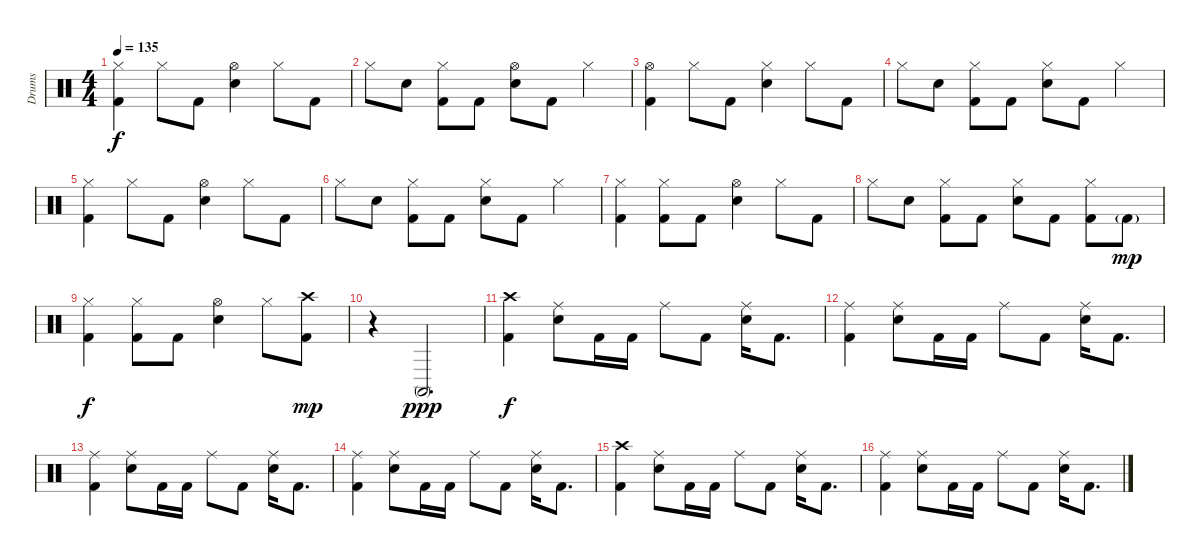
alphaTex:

\track ("Drums" "Drums") {instrument percussion}
\staff {score}
\articulation defaults
\ts (4 4)
\tempo 135
\clef neutral
\ks c
("Hi-Hat (closed)" "Kick (hit) 2").4{dy f} "Hi-Hat (closed)".8 "Kick (hit) 2".8 ("Hi-Hat (open)" "Electric Snare (hit)").4 "Hi-Hat (closed)".8 "Kick (hit) 2".8 |
"Hi-Hat (closed)".8 "Electric Snare (hit)".8 ("Hi-Hat (closed)" "Kick (hit) 2").8 "Kick (hit) 2".8 ("Hi-Hat (open)" "Electric Snare (hit)").8 "Kick (hit) 2".8 "Hi-Hat (closed)".4 |
("Hi-Hat (open)" "Kick (hit) 2").4 "Hi-Hat (closed)".8 "Kick (hit) 2".8 ("Hi-Hat (closed)" "Electric Snare (hit)").4 "Hi-Hat (closed)".8 "Kick (hit) 2".8 |
"Hi-Hat (closed)".8 "Electric Snare (hit)".8 ("Hi-Hat (closed)" "Kick (hit) 2").8 "Kick (hit) 2".8 ("Hi-Hat (closed)" "Electric Snare (hit)").8 "Kick (hit) 2".8 "Hi-Hat (closed)".4 |
("Hi-Hat (closed)" "Kick (hit) 2").4 "Hi-Hat (closed)".8 "Kick (hit) 2".8 ("Hi-Hat (open)" "Electric Snare (hit)").4 "Hi-Hat (closed)".8 "Kick (hit) 2".8 |
"Hi-Hat (closed)".8 "Electric Snare (hit)".8 ("Hi-Hat (closed)" "Kick (hit) 2").8 "Kick (hit) 2".8 ("Hi-Hat (closed)" "Electric Snare (hit)").8 "Kick (hit) 2".8 "Hi-Hat (closed)".4 |
("Hi-Hat (closed)" "Kick (hit) 2").4 ("Hi-Hat (closed)" "Kick (hit) 2").8 "Kick (hit) 2".8 ("Hi-Hat (open)" "Electric Snare (hit)").4 "Hi-Hat (closed)".8 "Kick (hit) 2".8 |
"Hi-Hat (closed)".8 "Electric Snare (hit)".8 ("Hi-Hat (closed)" "Kick (hit) 2").8 "Kick (hit) 2".8 ("Hi-Hat (closed)" "Electric Snare (hit)").8 "Kick (hit) 2".8 ("Hi-Hat (closed)" "Kick (hit) 2").8 "Kick (hit) 2"{g}.8{dy mp} |
("Hi-Hat (closed)" "Kick (hit) 2").4{dy f} ("Hi-Hat (closed)" "Kick (hit) 2").8 "Kick (hit) 2".8 ("Hi-Hat (open)" "Electric Snare (hit)").4 "Hi-Hat (closed)".8 ("Crash high (hit)" "Kick (hit) 2").8{dy mp} |
r.4 "Conga high (mute)".2{d dy ppp volume 16} |
("Crash high (hit)" "Kick (hit) 2").4{dy f volume 14} ("Ride (middle)" "Electric Snare (hit)").8 "Kick (hit) 2".16 "Kick (hit) 2".16 "Ride (middle)".8 "Kick (hit) 2".8 ("Ride (middle)" "Electric Snare (hit)").16 "Kick (hit) 2".8{d} |
("Ride (middle)" "Kick (hit) 2").4 ("Ride (middle)" "Electric Snare (hit)").8 "Kick (hit) 2".16 "Kick (hit) 2".16 "Ride (middle)".8 "Kick (hit) 2".8 ("Ride (middle)" "Electric Snare (hit)").16 "Kick (hit) 2".8{d} |
("Ride (middle)" "Kick (hit) 2").4 ("Ride (middle)" "Electric Snare (hit)").8 "Kick (hit) 2".16 "Kick (hit) 2".16 "Ride (middle)".8 "Kick (hit) 2".8 ("Ride (middle)" "Electric Snare (hit)").16 "Kick (hit) 2".8{d} |
("Ride (middle)" "Kick (hit) 2").4 ("Ride (middle)" "Electric Snare (hit)").8 "Kick (hit) 2".16 "Kick (hit) 2".16 "Ride (middle)".8 "Kick (hit) 2".8 ("Ride (middle)" "Electric Snare (hit)").16 "Kick (hit) 2".8{d} |
("Crash high (hit)" "Kick (hit) 2").4 ("Ride (middle)" "Electric Snare (hit)").8 "Kick (hit) 2".16 "Kick (hit) 2".16 "Ride (middle)".8 "Kick (hit) 2".8 ("Ride (middle)" "Electric Snare (hit)").16 "Kick (hit) 2".8{d} |
("Ride (middle)" "Kick (hit) 2").4 ("Ride (middle)" "Electric Snare (hit)").8 "Kick (hit) 2".16 "Kick (hit) 2".16 "Ride (middle)".8 "Kick (hit) 2".8 ("Ride (middle)" "Electric Snare (hit)").16 "Kick (hit) 2".8{d}
